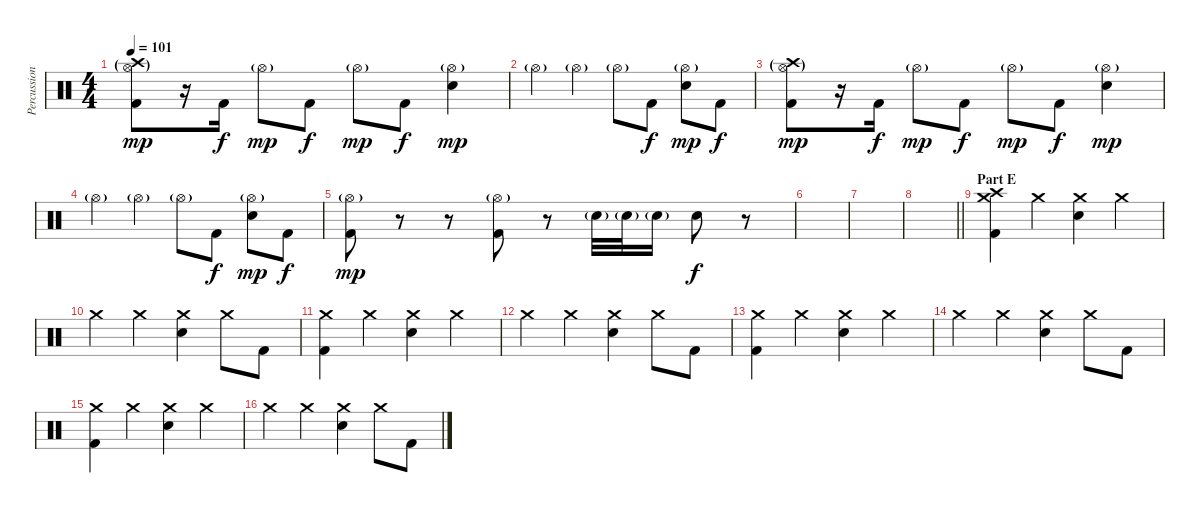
\track ("Percussion" "Percussion") {instrument percussion}
\staff {score}
\articulation defaults
\ts (4 4)
\tempo 101
\clef neutral
\ks c
("Crash high (hit)"{g} "Hi-Hat (open)"{g} "Kick (hit) 2").8{dy mp} r.16 "Kick (hit) 2".16{dy f} "Hi-Hat (open)"{g}.8{dy mp} "Kick (hit) 2".8{dy f} "Hi-Hat (open)"{g}.8{dy mp} "Kick (hit) 2".8{dy f} ("Electric Snare (hit)" "Hi-Hat (open)"{g}).4{dy mp} |
"Hi-Hat (open)"{g}.4 "Hi-Hat (open)"{g}.4 "Hi-Hat (open)"{g}.8 "Kick (hit) 2".8{dy f} ("Electric Snare (hit)" "Hi-Hat (open)"{g}).8{dy mp} "Kick (hit) 2".8{dy f} |
("Crash high (hit)"{g} "Hi-Hat (open)"{g} "Kick (hit) 2").8{dy mp} r.16 "Kick (hit) 2".16{dy f} "Hi-Hat (open)"{g}.8{dy mp} "Kick (hit) 2".8{dy f} "Hi-Hat (open)"{g}.8{dy mp} "Kick (hit) 2".8{dy f} ("Electric Snare (hit)" "Hi-Hat (open)"{g}).4{dy mp} |
"Hi-Hat (open)"{g}.4 "Hi-Hat (open)"{g}.4 "Hi-Hat (open)"{g}.8 "Kick (hit) 2".8{dy f} ("Electric Snare (hit)" "Hi-Hat (open)"{g}).8{dy mp} "Kick (hit) 2".8{dy f} |
("Hi-Hat (open)"{g} "Kick (hit) 2").8{dy mp} r.8 r.8 ("Hi-Hat (open)"{g} "Kick (hit) 2").8 r.8 "Electric Snare (hit)"{g}.32 "Electric Snare (hit)"{g}.32 "Electric Snare (hit)"{g}.16 "Electric Snare (hit)".8{dy f} r.8 |
|
|
\barLineRight lightlight
|
\section ("" "Part E")
("Crash high (hit)" "Crash medium (hit)" "Kick (hit) 2").4 "Crash medium (hit)".4 ("Crash medium (hit)" "Electric Snare (hit)").4 "Crash medium (hit)".4 |
"Crash medium (hit)".4 "Crash medium (hit)".4 ("Crash medium (hit)" "Electric Snare (hit)").4 "Crash medium (hit)".8 "Kick (hit) 2".8 |
("Crash medium (hit)" "Kick (hit) 2").4 "Crash medium (hit)".4 ("Crash medium (hit)" "Electric Snare (hit)").4 "Crash medium (hit)".4 |
"Crash medium (hit)".4 "Crash medium (hit)".4 ("Crash medium (hit)" "Electric Snare (hit)").4 "Crash medium (hit)".8 "Kick (hit) 2".8 |
("Crash medium (hit)" "Kick (hit) 2").4 "Crash medium (hit)".4 ("Crash medium (hit)" "Electric Snare (hit)").4 "Crash medium (hit)".4 |
"Crash medium (hit)".4 "Crash medium (hit)".4 ("Crash medium (hit)" "Electric Snare (hit)").4 "Crash medium (hit)".8 "Kick (hit) 2".8 |
("Crash medium (hit)" "Kick (hit) 2").4 "Crash medium (hit)".4 ("Crash medium (hit)" "Electric Snare (hit)").4 "Crash medium (hit)".4 |
"Crash medium (hit)".4 "Crash medium (hit)".4 ("Crash medium (hit)" "Electric Snare (hit)").4 "Crash medium (hit)".8 "Kick (hit) 2".8
